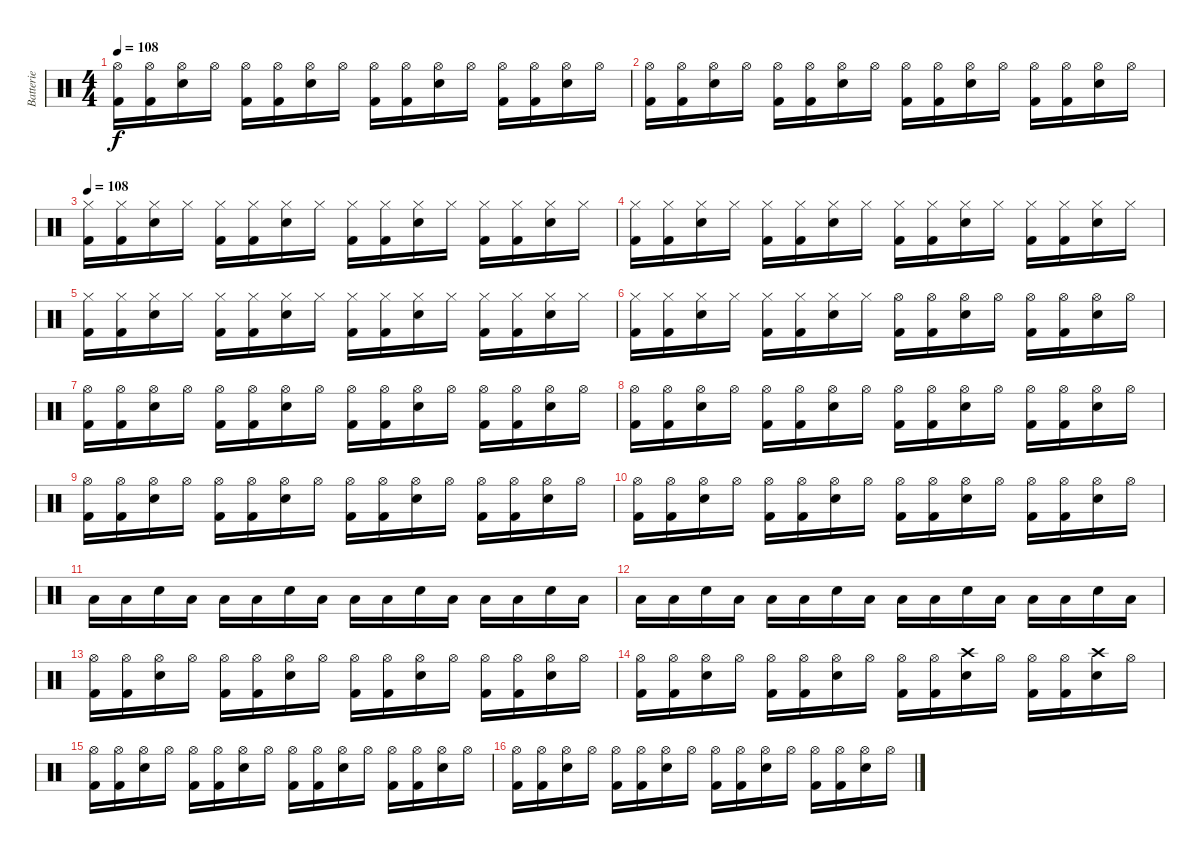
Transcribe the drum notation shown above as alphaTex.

\track ("Batterie" "Batterie") {instrument percussion}
\staff {score}
\articulation defaults
\ts (4 4)
\tempo 108
\clef neutral
\ks c
("Kick (hit) 2" "Hi-Hat (open)").16{dy f} ("Kick (hit) 2" "Hi-Hat (open)").16 ("Electric Snare (hit)" "Hi-Hat (open)").16 "Hi-Hat (open)".16 ("Kick (hit) 2" "Hi-Hat (open)").16 ("Kick (hit) 2" "Hi-Hat (open)").16 ("Electric Snare (hit)" "Hi-Hat (open)").16 "Hi-Hat (open)".16 ("Kick (hit) 2" "Hi-Hat (open)").16 ("Kick (hit) 2" "Hi-Hat (open)").16 ("Electric Snare (hit)" "Hi-Hat (open)").16 "Hi-Hat (open)".16 ("Kick (hit) 2" "Hi-Hat (open)").16 ("Kick (hit) 2" "Hi-Hat (open)").16 ("Electric Snare (hit)" "Hi-Hat (open)").16 "Hi-Hat (open)".16 |
("Kick (hit) 2" "Hi-Hat (open)").16 ("Kick (hit) 2" "Hi-Hat (open)").16 ("Electric Snare (hit)" "Hi-Hat (open)").16 "Hi-Hat (open)".16 ("Kick (hit) 2" "Hi-Hat (open)").16 ("Kick (hit) 2" "Hi-Hat (open)").16 ("Electric Snare (hit)" "Hi-Hat (open)").16 "Hi-Hat (open)".16 ("Kick (hit) 2" "Hi-Hat (open)").16 ("Kick (hit) 2" "Hi-Hat (open)").16 ("Electric Snare (hit)" "Hi-Hat (open)").16 "Hi-Hat (open)".16 ("Kick (hit) 2" "Hi-Hat (open)").16 ("Kick (hit) 2" "Hi-Hat (open)").16 ("Electric Snare (hit)" "Hi-Hat (open)").16 "Hi-Hat (open)".16 |
\tempo 108
("Kick (hit) 2" "Hi-Hat (closed)").16 ("Kick (hit) 2" "Hi-Hat (closed)").16 ("Electric Snare (hit)" "Hi-Hat (closed)").16 "Hi-Hat (closed)".16 ("Kick (hit) 2" "Hi-Hat (closed)").16 ("Kick (hit) 2" "Hi-Hat (closed)").16 ("Electric Snare (hit)" "Hi-Hat (closed)").16 "Hi-Hat (closed)".16 ("Kick (hit) 2" "Hi-Hat (closed)").16 ("Kick (hit) 2" "Hi-Hat (closed)").16 ("Electric Snare (hit)" "Hi-Hat (closed)").16 "Hi-Hat (closed)".16 ("Kick (hit) 2" "Hi-Hat (closed)").16 ("Kick (hit) 2" "Hi-Hat (closed)").16 ("Electric Snare (hit)" "Hi-Hat (closed)").16 "Hi-Hat (closed)".16 |
("Kick (hit) 2" "Hi-Hat (closed)").16 ("Kick (hit) 2" "Hi-Hat (closed)").16 ("Electric Snare (hit)" "Hi-Hat (closed)").16 "Hi-Hat (closed)".16 ("Kick (hit) 2" "Hi-Hat (closed)").16 ("Kick (hit) 2" "Hi-Hat (closed)").16 ("Electric Snare (hit)" "Hi-Hat (closed)").16 "Hi-Hat (closed)".16 ("Kick (hit) 2" "Hi-Hat (closed)").16 ("Kick (hit) 2" "Hi-Hat (closed)").16 ("Electric Snare (hit)" "Hi-Hat (closed)").16 "Hi-Hat (closed)".16 ("Kick (hit) 2" "Hi-Hat (closed)").16 ("Kick (hit) 2" "Hi-Hat (closed)").16 ("Electric Snare (hit)" "Hi-Hat (closed)").16 "Hi-Hat (closed)".16 |
("Kick (hit) 2" "Hi-Hat (closed)").16 ("Kick (hit) 2" "Hi-Hat (closed)").16 ("Electric Snare (hit)" "Hi-Hat (closed)").16 "Hi-Hat (closed)".16 ("Kick (hit) 2" "Hi-Hat (closed)").16 ("Kick (hit) 2" "Hi-Hat (closed)").16 ("Electric Snare (hit)" "Hi-Hat (closed)").16 "Hi-Hat (closed)".16 ("Kick (hit) 2" "Hi-Hat (closed)").16 ("Kick (hit) 2" "Hi-Hat (closed)").16 ("Electric Snare (hit)" "Hi-Hat (closed)").16 "Hi-Hat (closed)".16 ("Kick (hit) 2" "Hi-Hat (closed)").16 ("Kick (hit) 2" "Hi-Hat (closed)").16 ("Electric Snare (hit)" "Hi-Hat (closed)").16 "Hi-Hat (closed)".16 |
("Kick (hit) 2" "Hi-Hat (closed)").16 ("Kick (hit) 2" "Hi-Hat (closed)").16 ("Electric Snare (hit)" "Hi-Hat (closed)").16 "Hi-Hat (closed)".16 ("Kick (hit) 2" "Hi-Hat (closed)").16 ("Kick (hit) 2" "Hi-Hat (closed)").16 ("Electric Snare (hit)" "Hi-Hat (closed)").16 "Hi-Hat (closed)".16 ("Kick (hit) 2" "Hi-Hat (open)").16 ("Kick (hit) 2" "Hi-Hat (open)").16 ("Electric Snare (hit)" "Hi-Hat (open)").16 "Hi-Hat (open)".16 ("Kick (hit) 2" "Hi-Hat (open)").16 ("Kick (hit) 2" "Hi-Hat (open)").16 ("Electric Snare (hit)" "Hi-Hat (open)").16 "Hi-Hat (open)".16 |
("Kick (hit) 2" "Hi-Hat (open)").16 ("Kick (hit) 2" "Hi-Hat (open)").16 ("Electric Snare (hit)" "Hi-Hat (open)").16 "Hi-Hat (open)".16 ("Kick (hit) 2" "Hi-Hat (open)").16 ("Kick (hit) 2" "Hi-Hat (open)").16 ("Electric Snare (hit)" "Hi-Hat (open)").16 "Hi-Hat (open)".16 ("Kick (hit) 2" "Hi-Hat (open)").16 ("Kick (hit) 2" "Hi-Hat (open)").16 ("Electric Snare (hit)" "Hi-Hat (open)").16 "Hi-Hat (open)".16 ("Kick (hit) 2" "Hi-Hat (open)").16 ("Kick (hit) 2" "Hi-Hat (open)").16 ("Electric Snare (hit)" "Hi-Hat (open)").16 "Hi-Hat (open)".16 |
("Kick (hit) 2" "Hi-Hat (open)").16 ("Kick (hit) 2" "Hi-Hat (open)").16 ("Electric Snare (hit)" "Hi-Hat (open)").16 "Hi-Hat (open)".16 ("Kick (hit) 2" "Hi-Hat (open)").16 ("Kick (hit) 2" "Hi-Hat (open)").16 ("Electric Snare (hit)" "Hi-Hat (open)").16 "Hi-Hat (open)".16 ("Kick (hit) 2" "Hi-Hat (open)").16 ("Kick (hit) 2" "Hi-Hat (open)").16 ("Electric Snare (hit)" "Hi-Hat (open)").16 "Hi-Hat (open)".16 ("Kick (hit) 2" "Hi-Hat (open)").16 ("Kick (hit) 2" "Hi-Hat (open)").16 ("Electric Snare (hit)" "Hi-Hat (open)").16 "Hi-Hat (open)".16 |
("Kick (hit) 2" "Hi-Hat (open)").16 ("Kick (hit) 2" "Hi-Hat (open)").16 ("Electric Snare (hit)" "Hi-Hat (open)").16 "Hi-Hat (open)".16 ("Kick (hit) 2" "Hi-Hat (open)").16 ("Kick (hit) 2" "Hi-Hat (open)").16 ("Electric Snare (hit)" "Hi-Hat (open)").16 "Hi-Hat (open)".16 ("Kick (hit) 2" "Hi-Hat (open)").16 ("Kick (hit) 2" "Hi-Hat (open)").16 ("Electric Snare (hit)" "Hi-Hat (open)").16 "Hi-Hat (open)".16 ("Kick (hit) 2" "Hi-Hat (open)").16 ("Kick (hit) 2" "Hi-Hat (open)").16 ("Electric Snare (hit)" "Hi-Hat (open)").16 "Hi-Hat (open)".16 |
("Kick (hit) 2" "Hi-Hat (open)").16 ("Kick (hit) 2" "Hi-Hat (open)").16 ("Electric Snare (hit)" "Hi-Hat (open)").16 "Hi-Hat (open)".16 ("Kick (hit) 2" "Hi-Hat (open)").16 ("Kick (hit) 2" "Hi-Hat (open)").16 ("Electric Snare (hit)" "Hi-Hat (open)").16 "Hi-Hat (open)".16 ("Kick (hit) 2" "Hi-Hat (open)").16 ("Kick (hit) 2" "Hi-Hat (open)").16 ("Electric Snare (hit)" "Hi-Hat (open)").16 "Hi-Hat (open)".16 ("Kick (hit) 2" "Hi-Hat (open)").16 ("Kick (hit) 2" "Hi-Hat (open)").16 ("Electric Snare (hit)" "Hi-Hat (open)").16 "Hi-Hat (open)".16 |
"Low Floor Tom (hit)".16 "Low Floor Tom (hit)".16 "Electric Snare (hit)".16 "Low Floor Tom (hit)".16 "Low Floor Tom (hit)".16 "Low Floor Tom (hit)".16 "Electric Snare (hit)".16 "Low Floor Tom (hit)".16 "Low Floor Tom (hit)".16 "Low Floor Tom (hit)".16 "Electric Snare (hit)".16 "Low Floor Tom (hit)".16 "Low Floor Tom (hit)".16 "Low Floor Tom (hit)".16 "Electric Snare (hit)".16 "Low Floor Tom (hit)".16 |
"Low Floor Tom (hit)".16 "Low Floor Tom (hit)".16 "Electric Snare (hit)".16 "Low Floor Tom (hit)".16 "Low Floor Tom (hit)".16 "Low Floor Tom (hit)".16 "Electric Snare (hit)".16 "Low Floor Tom (hit)".16 "Low Floor Tom (hit)".16 "Low Floor Tom (hit)".16 "Electric Snare (hit)".16 "Low Floor Tom (hit)".16 "Low Floor Tom (hit)".16 "Low Floor Tom (hit)".16 "Electric Snare (hit)".16 "Low Floor Tom (hit)".16 |
("Kick (hit) 2" "Hi-Hat (open)").16 ("Kick (hit) 2" "Hi-Hat (open)").16 ("Electric Snare (hit)" "Hi-Hat (open)").16 "Hi-Hat (open)".16 ("Kick (hit) 2" "Hi-Hat (open)").16 ("Kick (hit) 2" "Hi-Hat (open)").16 ("Electric Snare (hit)" "Hi-Hat (open)").16 "Hi-Hat (open)".16 ("Kick (hit) 2" "Hi-Hat (open)").16 ("Kick (hit) 2" "Hi-Hat (open)").16 ("Electric Snare (hit)" "Hi-Hat (open)").16 "Hi-Hat (open)".16 ("Kick (hit) 2" "Hi-Hat (open)").16 ("Kick (hit) 2" "Hi-Hat (open)").16 ("Electric Snare (hit)" "Hi-Hat (open)").16 "Hi-Hat (open)".16 |
("Kick (hit) 2" "Hi-Hat (open)").16 ("Kick (hit) 2" "Hi-Hat (open)").16 ("Electric Snare (hit)" "Hi-Hat (open)").16 "Hi-Hat (open)".16 ("Kick (hit) 2" "Hi-Hat (open)").16 ("Kick (hit) 2" "Hi-Hat (open)").16 ("Electric Snare (hit)" "Hi-Hat (open)").16 "Hi-Hat (open)".16 ("Kick (hit) 2" "Hi-Hat (open)").16 ("Kick (hit) 2" "Hi-Hat (open)").16 ("Electric Snare (hit)" "Crash high (hit)").16 "Hi-Hat (open)".16 ("Kick (hit) 2" "Hi-Hat (open)").16 ("Kick (hit) 2" "Hi-Hat (open)").16 ("Electric Snare (hit)" "Crash high (hit)").16 "Hi-Hat (open)".16 |
("Kick (hit) 2" "Hi-Hat (open)").16 ("Kick (hit) 2" "Hi-Hat (open)").16 ("Electric Snare (hit)" "Hi-Hat (open)").16 "Hi-Hat (open)".16 ("Kick (hit) 2" "Hi-Hat (open)").16 ("Kick (hit) 2" "Hi-Hat (open)").16 ("Electric Snare (hit)" "Hi-Hat (open)").16 "Hi-Hat (open)".16 ("Kick (hit) 2" "Hi-Hat (open)").16 ("Kick (hit) 2" "Hi-Hat (open)").16 ("Electric Snare (hit)" "Hi-Hat (open)").16 "Hi-Hat (open)".16 ("Kick (hit) 2" "Hi-Hat (open)").16 ("Kick (hit) 2" "Hi-Hat (open)").16 ("Electric Snare (hit)" "Hi-Hat (open)").16 "Hi-Hat (open)".16 |
("Kick (hit) 2" "Hi-Hat (open)").16 ("Kick (hit) 2" "Hi-Hat (open)").16 ("Electric Snare (hit)" "Hi-Hat (open)").16 "Hi-Hat (open)".16 ("Kick (hit) 2" "Hi-Hat (open)").16 ("Kick (hit) 2" "Hi-Hat (open)").16 ("Electric Snare (hit)" "Hi-Hat (open)").16 "Hi-Hat (open)".16 ("Kick (hit) 2" "Hi-Hat (open)").16 ("Kick (hit) 2" "Hi-Hat (open)").16 ("Electric Snare (hit)" "Hi-Hat (open)").16 "Hi-Hat (open)".16 ("Kick (hit) 2" "Hi-Hat (open)").16 ("Kick (hit) 2" "Hi-Hat (open)").16 ("Electric Snare (hit)" "Hi-Hat (open)").16 "Hi-Hat (open)".16
